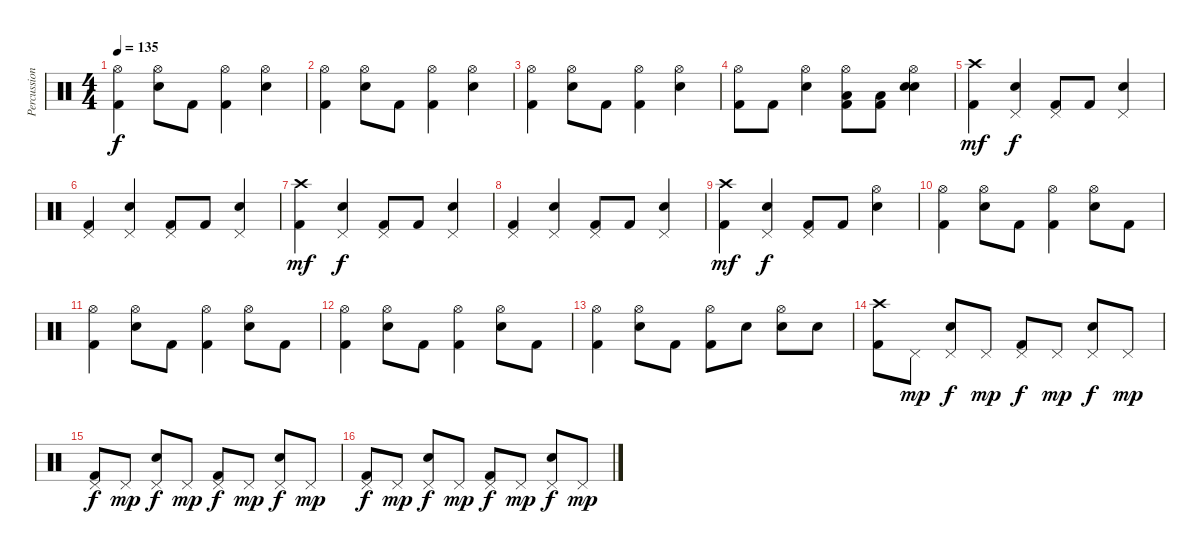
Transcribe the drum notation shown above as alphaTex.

\track ("Percussion" "Percussion") {instrument percussion}
\staff {score}
\articulation defaults
\ts (4 4)
\tempo 135
\clef neutral
\ks c
("Hi-Hat (open)" "Kick (hit) 2").4{dy f} ("Hi-Hat (open)" "Snare (hit) 2").8 "Kick (hit) 2".8 ("Hi-Hat (open)" "Kick (hit) 2").4 ("Hi-Hat (open)" "Snare (hit) 2").4 |
("Hi-Hat (open)" "Kick (hit) 2").4 ("Hi-Hat (open)" "Snare (hit) 2").8 "Kick (hit) 2".8 ("Hi-Hat (open)" "Kick (hit) 2").4 ("Hi-Hat (open)" "Snare (hit) 2").4 |
("Hi-Hat (open)" "Kick (hit) 2").4 ("Hi-Hat (open)" "Snare (hit) 2").8 "Kick (hit) 2".8 ("Hi-Hat (open)" "Kick (hit) 2").4 ("Hi-Hat (open)" "Snare (hit) 2").4 |
("Hi-Hat (open)" "Kick (hit) 2").8 "Kick (hit) 2".8 ("Hi-Hat (open)" "Snare (hit) 2").4 ("Hi-Hat (open)" "Low Floor Tom (hit)" "Kick (hit) 2").8 ("Low Floor Tom (hit)" "Kick (hit) 2").8 ("Hi-Hat (open)" "Snare (hit) 2" "Snare (hit) 2").4{bd 120} |
("Crash high (hit)" "Kick (hit) 2").4{dy mf} ("Pedal Hi-Hat (hit)" "Snare (hit) 2").4{dy f} ("Pedal Hi-Hat (hit)" "Kick (hit) 2").8 "Kick (hit) 2".8 ("Pedal Hi-Hat (hit)" "Snare (hit) 2").4 |
("Pedal Hi-Hat (hit)" "Kick (hit) 2").4 ("Pedal Hi-Hat (hit)" "Snare (hit) 2").4 ("Pedal Hi-Hat (hit)" "Kick (hit) 2").8 "Kick (hit) 2".8 ("Pedal Hi-Hat (hit)" "Snare (hit) 2").4 |
("Crash high (hit)" "Kick (hit) 2").4{dy mf} ("Pedal Hi-Hat (hit)" "Snare (hit) 2").4{dy f} ("Pedal Hi-Hat (hit)" "Kick (hit) 2").8 "Kick (hit) 2".8 ("Pedal Hi-Hat (hit)" "Snare (hit) 2").4 |
("Pedal Hi-Hat (hit)" "Kick (hit) 2").4 ("Pedal Hi-Hat (hit)" "Snare (hit) 2").4 ("Pedal Hi-Hat (hit)" "Kick (hit) 2").8 "Kick (hit) 2".8 ("Pedal Hi-Hat (hit)" "Snare (hit) 2").4 |
("Crash high (hit)" "Kick (hit) 2").4{dy mf} ("Pedal Hi-Hat (hit)" "Snare (hit) 2").4{dy f} ("Pedal Hi-Hat (hit)" "Kick (hit) 2").8 "Kick (hit) 2".8 ("Hi-Hat (open)" "Snare (hit) 2").4 |
("Hi-Hat (open)" "Kick (hit) 2").4 ("Hi-Hat (open)" "Snare (hit) 2").8 "Kick (hit) 2".8 ("Hi-Hat (open)" "Kick (hit) 2").4 ("Hi-Hat (open)" "Snare (hit) 2").8 "Kick (hit) 2".8 |
("Hi-Hat (open)" "Kick (hit) 2").4 ("Hi-Hat (open)" "Snare (hit) 2").8 "Kick (hit) 2".8 ("Hi-Hat (open)" "Kick (hit) 2").4 ("Hi-Hat (open)" "Snare (hit) 2").8 "Kick (hit) 2".8 |
("Hi-Hat (open)" "Kick (hit) 2").4 ("Hi-Hat (open)" "Snare (hit) 2").8 "Kick (hit) 2".8 ("Hi-Hat (open)" "Kick (hit) 2").4 ("Hi-Hat (open)" "Snare (hit) 2").8 "Kick (hit) 2".8 |
("Hi-Hat (open)" "Kick (hit) 2").4 ("Hi-Hat (open)" "Snare (hit) 2").8 "Kick (hit) 2".8 ("Hi-Hat (open)" "Kick (hit) 2").8 "Snare (hit) 2".8 ("Hi-Hat (open)" "Snare (hit) 2").8 "Snare (hit) 2".8 |
("Crash high (hit)" "Kick (hit) 2").8 "Pedal Hi-Hat (hit)".8{dy mp} ("Pedal Hi-Hat (hit)" "Electric Snare (hit)").8{dy f} "Pedal Hi-Hat (hit)".8{dy mp} ("Pedal Hi-Hat (hit)" "Kick (hit) 2").8{dy f} "Pedal Hi-Hat (hit)".8{dy mp} ("Pedal Hi-Hat (hit)" "Electric Snare (hit)").8{dy f} "Pedal Hi-Hat (hit)".8{dy mp} |
("Pedal Hi-Hat (hit)" "Kick (hit) 2").8{dy f} "Pedal Hi-Hat (hit)".8{dy mp} ("Pedal Hi-Hat (hit)" "Electric Snare (hit)").8{dy f} "Pedal Hi-Hat (hit)".8{dy mp} ("Pedal Hi-Hat (hit)" "Kick (hit) 2").8{dy f} "Pedal Hi-Hat (hit)".8{dy mp} ("Pedal Hi-Hat (hit)" "Electric Snare (hit)").8{dy f} "Pedal Hi-Hat (hit)".8{dy mp} |
("Pedal Hi-Hat (hit)" "Kick (hit) 2").8{dy f} "Pedal Hi-Hat (hit)".8{dy mp} ("Pedal Hi-Hat (hit)" "Electric Snare (hit)").8{dy f} "Pedal Hi-Hat (hit)".8{dy mp} ("Pedal Hi-Hat (hit)" "Kick (hit) 2").8{dy f} "Pedal Hi-Hat (hit)".8{dy mp} ("Pedal Hi-Hat (hit)" "Electric Snare (hit)").8{dy f} "Pedal Hi-Hat (hit)".8{dy mp}
